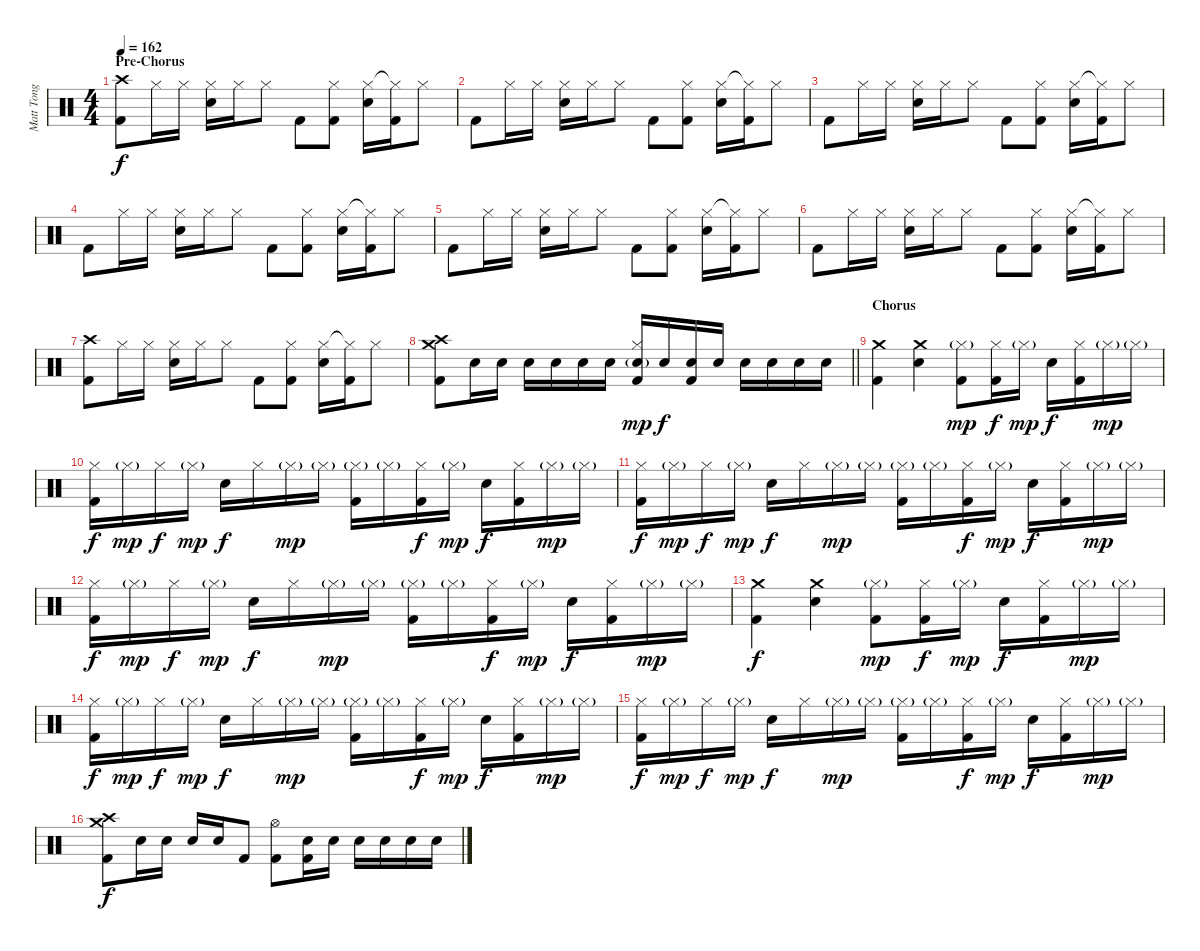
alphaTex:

\track ("Matt Tong" "Matt Tong") {instrument percussion}
\staff {score}
\articulation defaults
\ts (4 4)
\section ("" "Pre-Chorus")
\tempo 162
\clef neutral
\ks c
("Crash high (hit)" "Kick (hit) 2").8{dy f} "Hi-Hat (closed)".16 "Hi-Hat (closed)".16 ("Hi-Hat (closed)" "Snare (hit) 2").16 "Hi-Hat (closed)".16 "Hi-Hat (closed)".8 "Kick (hit) 2".8 ("Hi-Hat (closed)" "Kick (hit) 2").8 ("Hi-Hat (closed)" "Snare (hit) 2").16 ("Hi-Hat (closed)"{t} "Kick (hit) 2").16 "Hi-Hat (closed)".8 |
"Kick (hit) 2".8 "Hi-Hat (closed)".16 "Hi-Hat (closed)".16 ("Hi-Hat (closed)" "Snare (hit) 2").16 "Hi-Hat (closed)".16 "Hi-Hat (closed)".8 "Kick (hit) 2".8 ("Hi-Hat (closed)" "Kick (hit) 2").8 ("Hi-Hat (closed)" "Snare (hit) 2").16 ("Hi-Hat (closed)"{t} "Kick (hit) 2").16 "Hi-Hat (closed)".8 |
"Kick (hit) 2".8 "Hi-Hat (closed)".16 "Hi-Hat (closed)".16 ("Hi-Hat (closed)" "Snare (hit) 2").16 "Hi-Hat (closed)".16 "Hi-Hat (closed)".8 "Kick (hit) 2".8 ("Hi-Hat (closed)" "Kick (hit) 2").8 ("Hi-Hat (closed)" "Snare (hit) 2").16 ("Hi-Hat (closed)"{t} "Kick (hit) 2").16 "Hi-Hat (closed)".8 |
"Kick (hit) 2".8 "Hi-Hat (closed)".16 "Hi-Hat (closed)".16 ("Hi-Hat (closed)" "Snare (hit) 2").16 "Hi-Hat (closed)".16 "Hi-Hat (closed)".8 "Kick (hit) 2".8 ("Hi-Hat (closed)" "Kick (hit) 2").8 ("Hi-Hat (closed)" "Snare (hit) 2").16 ("Hi-Hat (closed)"{t} "Kick (hit) 2").16 "Hi-Hat (closed)".8 |
"Kick (hit) 2".8 "Hi-Hat (closed)".16 "Hi-Hat (closed)".16 ("Hi-Hat (closed)" "Snare (hit) 2").16 "Hi-Hat (closed)".16 "Hi-Hat (closed)".8 "Kick (hit) 2".8 ("Hi-Hat (closed)" "Kick (hit) 2").8 ("Hi-Hat (closed)" "Snare (hit) 2").16 ("Hi-Hat (closed)"{t} "Kick (hit) 2").16 "Hi-Hat (closed)".8 |
"Kick (hit) 2".8 "Hi-Hat (closed)".16 "Hi-Hat (closed)".16 ("Hi-Hat (closed)" "Snare (hit) 2").16 "Hi-Hat (closed)".16 "Hi-Hat (closed)".8 "Kick (hit) 2".8 ("Hi-Hat (closed)" "Kick (hit) 2").8 ("Hi-Hat (closed)" "Snare (hit) 2").16 ("Hi-Hat (closed)"{t} "Kick (hit) 2").16 "Hi-Hat (closed)".8 |
("Crash high (hit)" "Kick (hit) 2").8 "Hi-Hat (closed)".16 "Hi-Hat (closed)".16 ("Hi-Hat (closed)" "Snare (hit) 2").16 "Hi-Hat (closed)".16 "Hi-Hat (closed)".8 "Kick (hit) 2".8 ("Hi-Hat (closed)" "Kick (hit) 2").8 ("Hi-Hat (closed)" "Snare (hit) 2").16 ("Hi-Hat (closed)"{t} "Kick (hit) 2").16 "Hi-Hat (closed)".8 |
\barLineRight lightlight
("Crash medium (hit)" "Crash high (hit)" "Kick (hit) 2").8 "Snare (hit) 2".16 "Snare (hit) 2".16 "Snare (hit) 2".16 "Snare (hit) 2".16 "Snare (hit) 2".16 "Snare (hit) 2".16 ("Hi-Hat (closed)" "Snare (hit) 2"{g} "Kick (hit) 2").16{dy mp} "Snare (hit) 2".16{dy f} ("Snare (hit) 2" "Kick (hit) 2").16 "Snare (hit) 2".16 "Snare (hit) 2".16 "Snare (hit) 2".16 "Snare (hit) 2".16 "Snare (hit) 2".16 |
\section ("" "Chorus")
("Crash medium (hit)" "Kick (hit) 2").4 ("Crash medium (hit)" "Snare (hit) 2").4 ("Hi-Hat (closed)"{g} "Kick (hit) 2").8{dy mp} ("Hi-Hat (closed)" "Kick (hit) 2").16{dy f} "Hi-Hat (closed)"{g}.16{dy mp} "Snare (hit) 2".16{dy f} ("Hi-Hat (closed)" "Kick (hit) 2").16 "Hi-Hat (closed)"{g}.16{dy mp} "Hi-Hat (closed)"{g}.16 |
("Hi-Hat (closed)" "Kick (hit) 2").16{dy f} "Hi-Hat (closed)"{g}.16{dy mp} "Hi-Hat (closed)".16{dy f} "Hi-Hat (closed)"{g}.16{dy mp} "Snare (hit) 2".16{dy f} "Hi-Hat (closed)".16 "Hi-Hat (closed)"{g}.16{dy mp} "Hi-Hat (closed)"{g}.16 ("Hi-Hat (closed)"{g} "Kick (hit) 2").16 "Hi-Hat (closed)"{g}.16 ("Hi-Hat (closed)" "Kick (hit) 2").16{dy f} "Hi-Hat (closed)"{g}.16{dy mp} "Snare (hit) 2".16{dy f} ("Hi-Hat (closed)" "Kick (hit) 2").16 "Hi-Hat (closed)"{g}.16{dy mp} "Hi-Hat (closed)"{g}.16 |
("Hi-Hat (closed)" "Kick (hit) 2").16{dy f} "Hi-Hat (closed)"{g}.16{dy mp} "Hi-Hat (closed)".16{dy f} "Hi-Hat (closed)"{g}.16{dy mp} "Snare (hit) 2".16{dy f} "Hi-Hat (closed)".16 "Hi-Hat (closed)"{g}.16{dy mp} "Hi-Hat (closed)"{g}.16 ("Hi-Hat (closed)"{g} "Kick (hit) 2").16 "Hi-Hat (closed)"{g}.16 ("Hi-Hat (closed)" "Kick (hit) 2").16{dy f} "Hi-Hat (closed)"{g}.16{dy mp} "Snare (hit) 2".16{dy f} ("Hi-Hat (closed)" "Kick (hit) 2").16 "Hi-Hat (closed)"{g}.16{dy mp} "Hi-Hat (closed)"{g}.16 |
("Hi-Hat (closed)" "Kick (hit) 2").16{dy f} "Hi-Hat (closed)"{g}.16{dy mp} "Hi-Hat (closed)".16{dy f} "Hi-Hat (closed)"{g}.16{dy mp} "Snare (hit) 2".16{dy f} "Hi-Hat (closed)".16 "Hi-Hat (closed)"{g}.16{dy mp} "Hi-Hat (closed)"{g}.16 ("Hi-Hat (closed)"{g} "Kick (hit) 2").16 "Hi-Hat (closed)"{g}.16 ("Hi-Hat (closed)" "Kick (hit) 2").16{dy f} "Hi-Hat (closed)"{g}.16{dy mp} "Snare (hit) 2".16{dy f} ("Hi-Hat (closed)" "Kick (hit) 2").16 "Hi-Hat (closed)"{g}.16{dy mp} "Hi-Hat (closed)"{g}.16 |
("Crash medium (hit)" "Kick (hit) 2").4{dy f} ("Crash medium (hit)" "Snare (hit) 2").4 ("Hi-Hat (closed)"{g} "Kick (hit) 2").8{dy mp} ("Hi-Hat (closed)" "Kick (hit) 2").16{dy f} "Hi-Hat (closed)"{g}.16{dy mp} "Snare (hit) 2".16{dy f} ("Hi-Hat (closed)" "Kick (hit) 2").16 "Hi-Hat (closed)"{g}.16{dy mp} "Hi-Hat (closed)"{g}.16 |
("Hi-Hat (closed)" "Kick (hit) 2").16{dy f} "Hi-Hat (closed)"{g}.16{dy mp} "Hi-Hat (closed)".16{dy f} "Hi-Hat (closed)"{g}.16{dy mp} "Snare (hit) 2".16{dy f} "Hi-Hat (closed)".16 "Hi-Hat (closed)"{g}.16{dy mp} "Hi-Hat (closed)"{g}.16 ("Hi-Hat (closed)"{g} "Kick (hit) 2").16 "Hi-Hat (closed)"{g}.16 ("Hi-Hat (closed)" "Kick (hit) 2").16{dy f} "Hi-Hat (closed)"{g}.16{dy mp} "Snare (hit) 2".16{dy f} ("Hi-Hat (closed)" "Kick (hit) 2").16 "Hi-Hat (closed)"{g}.16{dy mp} "Hi-Hat (closed)"{g}.16 |
("Hi-Hat (closed)" "Kick (hit) 2").16{dy f} "Hi-Hat (closed)"{g}.16{dy mp} "Hi-Hat (closed)".16{dy f} "Hi-Hat (closed)"{g}.16{dy mp} "Snare (hit) 2".16{dy f} "Hi-Hat (closed)".16 "Hi-Hat (closed)"{g}.16{dy mp} "Hi-Hat (closed)"{g}.16 ("Hi-Hat (closed)"{g} "Kick (hit) 2").16 "Hi-Hat (closed)"{g}.16 ("Hi-Hat (closed)" "Kick (hit) 2").16{dy f} "Hi-Hat (closed)"{g}.16{dy mp} "Snare (hit) 2".16{dy f} ("Hi-Hat (closed)" "Kick (hit) 2").16 "Hi-Hat (closed)"{g}.16{dy mp} "Hi-Hat (closed)"{g}.16 |
("Crash medium (hit)" "Crash high (hit)" "Kick (hit) 2").8{dy f} "Snare (hit) 2".16 "Snare (hit) 2".16 "Snare (hit) 2".16 "Snare (hit) 2".16 "Kick (hit) 2".8 ("Hi-Hat (open)" "Kick (hit) 2").8 ("Snare (hit) 2" "Kick (hit) 2").16 "Snare (hit) 2".16 "Snare (hit) 2".16 "Snare (hit) 2".16 "Snare (hit) 2".16 "Snare (hit) 2".16
